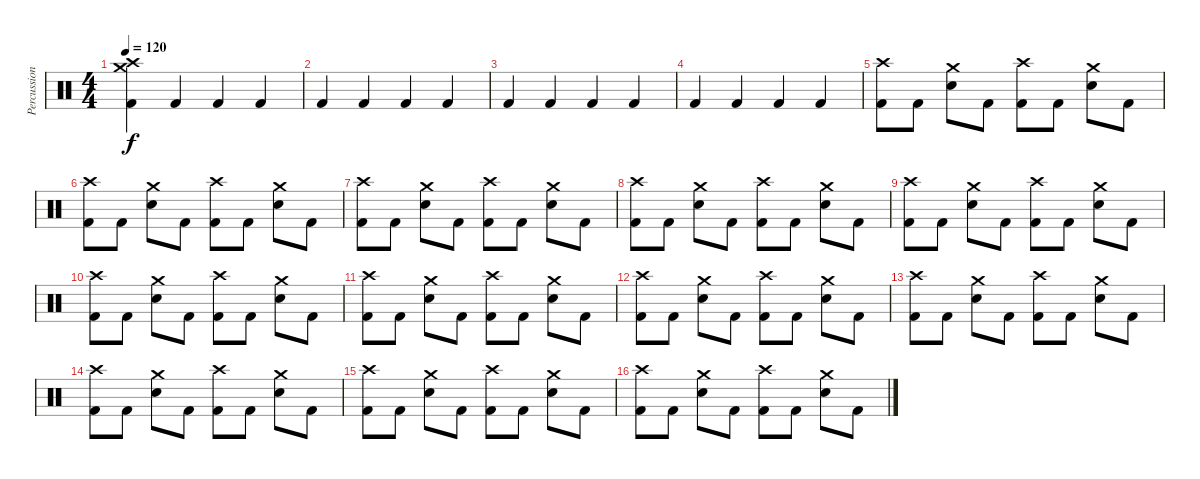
\track ("Percussion" "Percussion") {instrument percussion}
\staff {score}
\articulation defaults
\ts (4 4)
\tempo 120
\clef neutral
\ks c
("Crash high (hit)" "Crash medium (hit)" "Kick (hit) 2").4{dy f} "Kick (hit) 2".4 "Kick (hit) 2".4 "Kick (hit) 2".4 |
"Kick (hit) 2".4 "Kick (hit) 2".4 "Kick (hit) 2".4 "Kick (hit) 2".4 |
"Kick (hit) 2".4 "Kick (hit) 2".4 "Kick (hit) 2".4 "Kick (hit) 2".4 |
"Kick (hit) 2".4 "Kick (hit) 2".4 "Kick (hit) 2".4 "Kick (hit) 2".4 |
("Crash high (hit)" "Kick (hit) 2").8 "Kick (hit) 2".8 ("Crash medium (hit)" "Snare (hit) 2").8 "Kick (hit) 2".8 ("Crash high (hit)" "Kick (hit) 2").8 "Kick (hit) 2".8 ("Crash medium (hit)" "Snare (hit) 2").8 "Kick (hit) 2".8 |
("Crash high (hit)" "Kick (hit) 2").8 "Kick (hit) 2".8 ("Crash medium (hit)" "Snare (hit) 2").8 "Kick (hit) 2".8 ("Crash high (hit)" "Kick (hit) 2").8 "Kick (hit) 2".8 ("Crash medium (hit)" "Snare (hit) 2").8 "Kick (hit) 2".8 |
("Crash high (hit)" "Kick (hit) 2").8 "Kick (hit) 2".8 ("Crash medium (hit)" "Snare (hit) 2").8 "Kick (hit) 2".8 ("Crash high (hit)" "Kick (hit) 2").8 "Kick (hit) 2".8 ("Crash medium (hit)" "Snare (hit) 2").8 "Kick (hit) 2".8 |
("Crash high (hit)" "Kick (hit) 2").8 "Kick (hit) 2".8 ("Crash medium (hit)" "Snare (hit) 2").8 "Kick (hit) 2".8 ("Crash high (hit)" "Kick (hit) 2").8 "Kick (hit) 2".8 ("Crash medium (hit)" "Snare (hit) 2").8 "Kick (hit) 2".8 |
("Crash high (hit)" "Kick (hit) 2").8 "Kick (hit) 2".8 ("Crash medium (hit)" "Snare (hit) 2").8 "Kick (hit) 2".8 ("Crash high (hit)" "Kick (hit) 2").8 "Kick (hit) 2".8 ("Crash medium (hit)" "Snare (hit) 2").8 "Kick (hit) 2".8 |
("Crash high (hit)" "Kick (hit) 2").8 "Kick (hit) 2".8 ("Crash medium (hit)" "Snare (hit) 2").8 "Kick (hit) 2".8 ("Crash high (hit)" "Kick (hit) 2").8 "Kick (hit) 2".8 ("Crash medium (hit)" "Snare (hit) 2").8 "Kick (hit) 2".8 |
("Crash high (hit)" "Kick (hit) 2").8 "Kick (hit) 2".8 ("Crash medium (hit)" "Snare (hit) 2").8 "Kick (hit) 2".8 ("Crash high (hit)" "Kick (hit) 2").8 "Kick (hit) 2".8 ("Crash medium (hit)" "Snare (hit) 2").8 "Kick (hit) 2".8 |
("Crash high (hit)" "Kick (hit) 2").8 "Kick (hit) 2".8 ("Crash medium (hit)" "Snare (hit) 2").8 "Kick (hit) 2".8 ("Crash high (hit)" "Kick (hit) 2").8 "Kick (hit) 2".8 ("Crash medium (hit)" "Snare (hit) 2").8 "Kick (hit) 2".8 |
("Crash high (hit)" "Kick (hit) 2").8 "Kick (hit) 2".8 ("Crash medium (hit)" "Snare (hit) 2").8 "Kick (hit) 2".8 ("Crash high (hit)" "Kick (hit) 2").8 "Kick (hit) 2".8 ("Crash medium (hit)" "Snare (hit) 2").8 "Kick (hit) 2".8 |
("Crash high (hit)" "Kick (hit) 2").8 "Kick (hit) 2".8 ("Crash medium (hit)" "Snare (hit) 2").8 "Kick (hit) 2".8 ("Crash high (hit)" "Kick (hit) 2").8 "Kick (hit) 2".8 ("Crash medium (hit)" "Snare (hit) 2").8 "Kick (hit) 2".8 |
("Crash high (hit)" "Kick (hit) 2").8 "Kick (hit) 2".8 ("Crash medium (hit)" "Snare (hit) 2").8 "Kick (hit) 2".8 ("Crash high (hit)" "Kick (hit) 2").8 "Kick (hit) 2".8 ("Crash medium (hit)" "Snare (hit) 2").8 "Kick (hit) 2".8 |
("Crash high (hit)" "Kick (hit) 2").8 "Kick (hit) 2".8 ("Crash medium (hit)" "Snare (hit) 2").8 "Kick (hit) 2".8 ("Crash high (hit)" "Kick (hit) 2").8 "Kick (hit) 2".8 ("Crash medium (hit)" "Snare (hit) 2").8 "Kick (hit) 2".8
